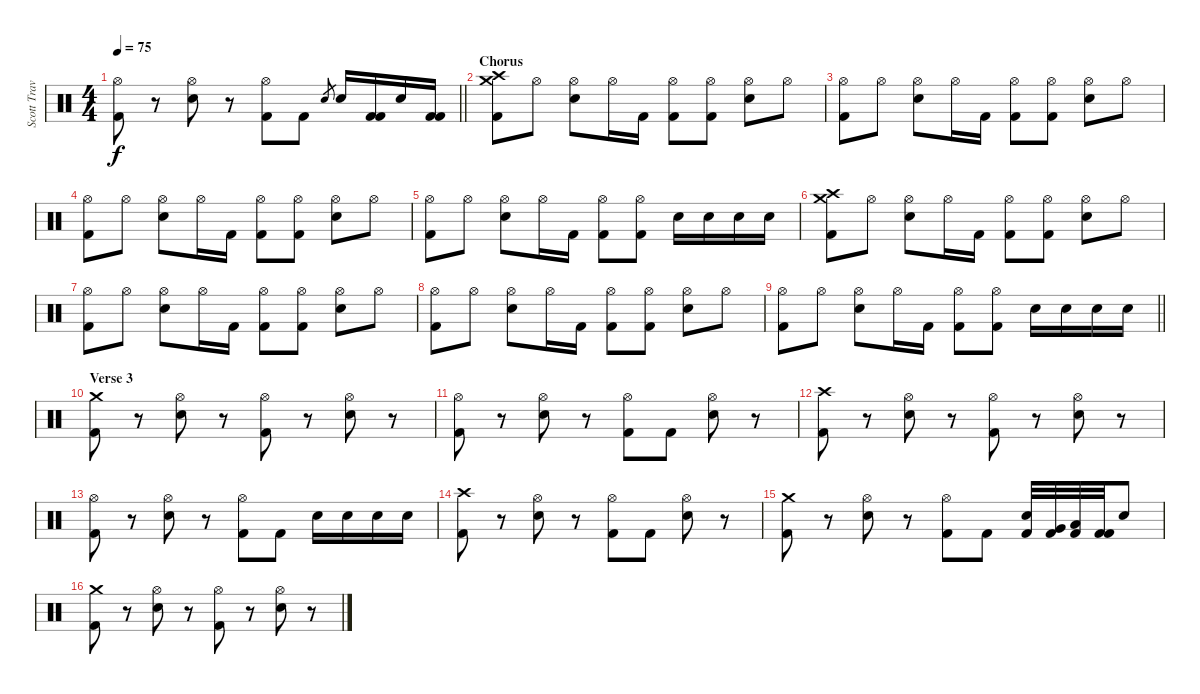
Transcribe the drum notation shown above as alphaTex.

\track ("Scott Travis" "Scott Trav") {instrument percussion}
\staff {score}
\articulation defaults
\ts (4 4)
\tempo 75
\clef neutral
\barLineRight lightlight
\ks c
("Hi-Hat (open)" "Kick (hit) 2").8{dy f} r.8 ("Hi-Hat (open)" "Snare (hit) 2").8 r.8 ("Hi-Hat (open)" "Kick (hit) 2").8 "Kick (hit) 2".8 "Snare (hit) 2".8{gr} "Snare (hit) 2".16 ("Kick (hit) 2" "Kick (hit) 2").16 "Electric Snare (hit)".16 ("Kick (hit) 2" "Kick (hit) 2").16 |
\section ("" "Chorus")
("Crash high (hit)" "Crash medium (hit)" "Kick (hit) 2").8 "Hi-Hat (open)".8 ("Hi-Hat (open)" "Snare (hit) 2").8 "Hi-Hat (open)".16 "Kick (hit) 2".16 ("Hi-Hat (open)" "Kick (hit) 2").8 ("Hi-Hat (open)" "Kick (hit) 2").8 ("Hi-Hat (open)" "Snare (hit) 2").8 "Hi-Hat (open)".8 |
("Hi-Hat (open)" "Kick (hit) 2").8 "Hi-Hat (open)".8 ("Hi-Hat (open)" "Snare (hit) 2").8 "Hi-Hat (open)".16 "Kick (hit) 2".16 ("Hi-Hat (open)" "Kick (hit) 2").8 ("Hi-Hat (open)" "Kick (hit) 2").8 ("Hi-Hat (open)" "Snare (hit) 2").8 "Hi-Hat (open)".8 |
("Hi-Hat (open)" "Kick (hit) 2").8 "Hi-Hat (open)".8 ("Hi-Hat (open)" "Snare (hit) 2").8 "Hi-Hat (open)".16 "Kick (hit) 2".16 ("Hi-Hat (open)" "Kick (hit) 2").8 ("Hi-Hat (open)" "Kick (hit) 2").8 ("Hi-Hat (open)" "Snare (hit) 2").8 "Hi-Hat (open)".8 |
("Hi-Hat (open)" "Kick (hit) 2").8 "Hi-Hat (open)".8 ("Hi-Hat (open)" "Snare (hit) 2").8 "Hi-Hat (open)".16 "Kick (hit) 2".16 ("Hi-Hat (open)" "Kick (hit) 2").8 ("Hi-Hat (open)" "Kick (hit) 2").8 "Snare (hit) 2".16 "Snare (hit) 2".16 "Snare (hit) 2".16 "Snare (hit) 2".16 |
("Crash high (hit)" "Crash medium (hit)" "Kick (hit) 2").8 "Hi-Hat (open)".8 ("Hi-Hat (open)" "Snare (hit) 2").8 "Hi-Hat (open)".16 "Kick (hit) 2".16 ("Hi-Hat (open)" "Kick (hit) 2").8 ("Hi-Hat (open)" "Kick (hit) 2").8 ("Hi-Hat (open)" "Snare (hit) 2").8 "Hi-Hat (open)".8 |
("Hi-Hat (open)" "Kick (hit) 2").8 "Hi-Hat (open)".8 ("Hi-Hat (open)" "Snare (hit) 2").8 "Hi-Hat (open)".16 "Kick (hit) 2".16 ("Hi-Hat (open)" "Kick (hit) 2").8 ("Hi-Hat (open)" "Kick (hit) 2").8 ("Hi-Hat (open)" "Snare (hit) 2").8 "Hi-Hat (open)".8 |
("Hi-Hat (open)" "Kick (hit) 2").8 "Hi-Hat (open)".8 ("Hi-Hat (open)" "Snare (hit) 2").8 "Hi-Hat (open)".16 "Kick (hit) 2".16 ("Hi-Hat (open)" "Kick (hit) 2").8 ("Hi-Hat (open)" "Kick (hit) 2").8 ("Hi-Hat (open)" "Snare (hit) 2").8 "Hi-Hat (open)".8 |
\barLineRight lightlight
("Hi-Hat (open)" "Kick (hit) 2").8 "Hi-Hat (open)".8 ("Hi-Hat (open)" "Snare (hit) 2").8 "Hi-Hat (open)".16 "Kick (hit) 2".16 ("Hi-Hat (open)" "Kick (hit) 2").8 ("Hi-Hat (open)" "Kick (hit) 2").8 "Snare (hit) 2".16 "Snare (hit) 2".16 "Snare (hit) 2".16 "Snare (hit) 2".16 |
\section ("" "Verse 3")
("Crash medium (hit)" "Kick (hit) 2").8 r.8 ("Hi-Hat (open)" "Snare (hit) 2").8 r.8 ("Hi-Hat (open)" "Kick (hit) 2").8 r.8 ("Hi-Hat (open)" "Snare (hit) 2").8 r.8 |
("Hi-Hat (open)" "Kick (hit) 2").8 r.8 ("Hi-Hat (open)" "Snare (hit) 2").8 r.8 ("Hi-Hat (open)" "Kick (hit) 2").8 "Kick (hit) 2".8 ("Hi-Hat (open)" "Snare (hit) 2").8 r.8 |
("Crash high (hit)" "Kick (hit) 2").8 r.8 ("Hi-Hat (open)" "Snare (hit) 2").8 r.8 ("Hi-Hat (open)" "Kick (hit) 2").8 r.8 ("Hi-Hat (open)" "Snare (hit) 2").8 r.8 |
("Hi-Hat (open)" "Kick (hit) 2").8 r.8 ("Hi-Hat (open)" "Snare (hit) 2").8 r.8 ("Hi-Hat (open)" "Kick (hit) 2").8 "Kick (hit) 2".8 "Snare (hit) 2".16 "Snare (hit) 2".16 "Snare (hit) 2".16 "Snare (hit) 2".16 |
("Crash high (hit)" "Kick (hit) 2").8 r.8 ("Hi-Hat (open)" "Snare (hit) 2").8 r.8 ("Hi-Hat (open)" "Kick (hit) 2").8 "Kick (hit) 2".8 ("Hi-Hat (open)" "Snare (hit) 2").8 r.8 |
("Crash medium (hit)" "Kick (hit) 2").8 r.8 ("Hi-Hat (open)" "Snare (hit) 2").8 r.8 ("Hi-Hat (open)" "Kick (hit) 2").8 "Kick (hit) 2".8 ("Snare (hit) 2" "Kick (hit) 2").32 ("Very Low Tom (hit)" "Kick (hit) 2").32 ("Low Floor Tom (hit)" "Kick (hit) 2").32 ("Kick (hit) 2" "Kick (hit) 2").32 "Snare (hit) 2".8 |
("Crash medium (hit)" "Kick (hit) 2").8 r.8 ("Hi-Hat (open)" "Snare (hit) 2").8 r.8 ("Hi-Hat (open)" "Kick (hit) 2").8 r.8 ("Hi-Hat (open)" "Snare (hit) 2").8 r.8
